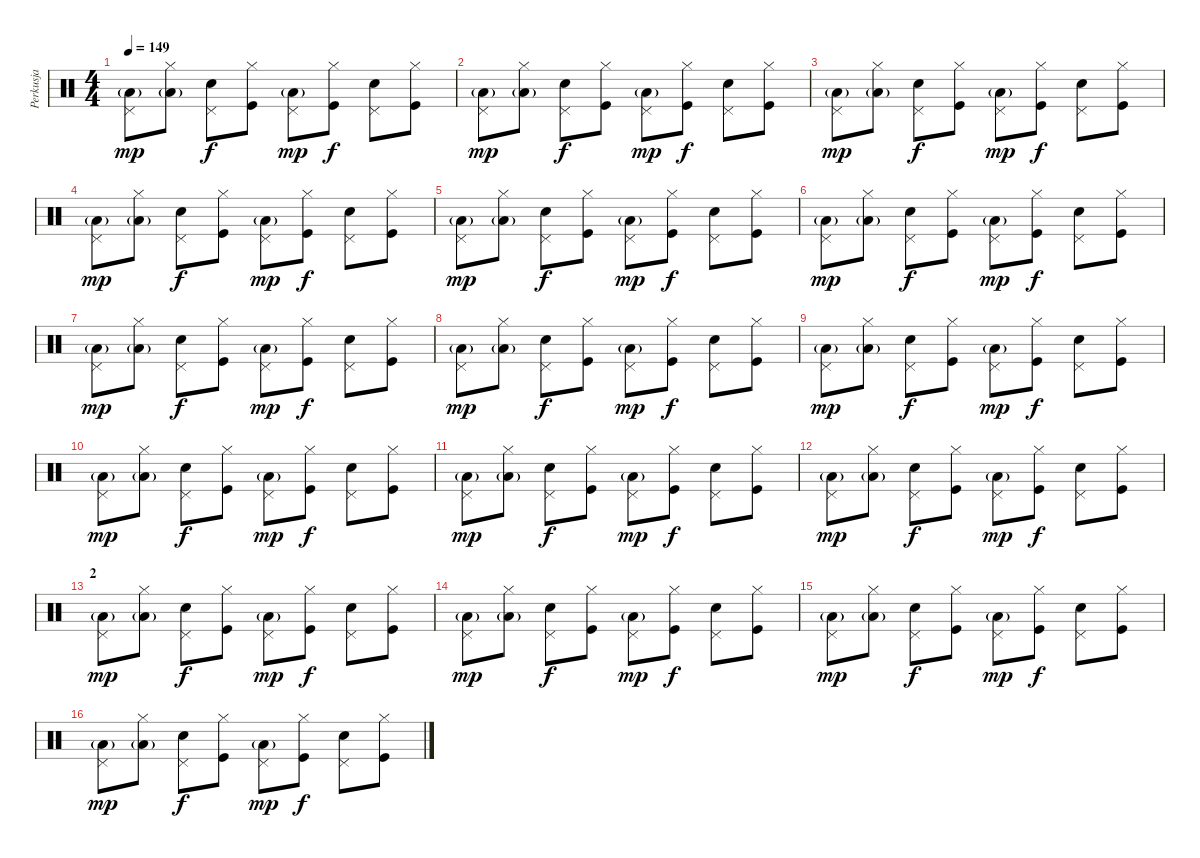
\track ("Perkusja" "Perkusja") {instrument percussion}
\staff {score}
\articulation defaults
\ts (4 4)
\tempo 149
\clef neutral
\ks c
("Low Tom (hit)"{g} "Pedal Hi-Hat (hit)").8{dy mp} ("Low Tom (hit)"{g} "Hi-Hat (closed)").8 ("Electric Snare (hit)" "Pedal Hi-Hat (hit)").8{dy f} ("Kick (hit)" "Hi-Hat (closed)").8 ("Low Tom (hit)"{g} "Pedal Hi-Hat (hit)").8{dy mp} ("Kick (hit)" "Hi-Hat (closed)").8{dy f} ("Electric Snare (hit)" "Pedal Hi-Hat (hit)").8 ("Kick (hit)" "Hi-Hat (closed)").8 |
("Low Tom (hit)"{g} "Pedal Hi-Hat (hit)").8{dy mp} ("Low Tom (hit)"{g} "Hi-Hat (closed)").8 ("Electric Snare (hit)" "Pedal Hi-Hat (hit)").8{dy f} ("Kick (hit)" "Hi-Hat (closed)").8 ("Low Tom (hit)"{g} "Pedal Hi-Hat (hit)").8{dy mp} ("Kick (hit)" "Hi-Hat (closed)").8{dy f} ("Electric Snare (hit)" "Pedal Hi-Hat (hit)").8 ("Kick (hit)" "Hi-Hat (closed)").8 |
("Low Tom (hit)"{g} "Pedal Hi-Hat (hit)").8{dy mp} ("Low Tom (hit)"{g} "Hi-Hat (closed)").8 ("Electric Snare (hit)" "Pedal Hi-Hat (hit)").8{dy f} ("Kick (hit)" "Hi-Hat (closed)").8 ("Low Tom (hit)"{g} "Pedal Hi-Hat (hit)").8{dy mp} ("Kick (hit)" "Hi-Hat (closed)").8{dy f} ("Electric Snare (hit)" "Pedal Hi-Hat (hit)").8 ("Kick (hit)" "Hi-Hat (closed)").8 |
("Low Tom (hit)"{g} "Pedal Hi-Hat (hit)").8{dy mp} ("Low Tom (hit)"{g} "Hi-Hat (closed)").8 ("Electric Snare (hit)" "Pedal Hi-Hat (hit)").8{dy f} ("Kick (hit)" "Hi-Hat (closed)").8 ("Low Tom (hit)"{g} "Pedal Hi-Hat (hit)").8{dy mp} ("Kick (hit)" "Hi-Hat (closed)").8{dy f} ("Electric Snare (hit)" "Pedal Hi-Hat (hit)").8 ("Kick (hit)" "Hi-Hat (closed)").8 |
("Low Tom (hit)"{g} "Pedal Hi-Hat (hit)").8{dy mp} ("Low Tom (hit)"{g} "Hi-Hat (closed)").8 ("Electric Snare (hit)" "Pedal Hi-Hat (hit)").8{dy f} ("Kick (hit)" "Hi-Hat (closed)").8 ("Low Tom (hit)"{g} "Pedal Hi-Hat (hit)").8{dy mp} ("Kick (hit)" "Hi-Hat (closed)").8{dy f} ("Electric Snare (hit)" "Pedal Hi-Hat (hit)").8 ("Kick (hit)" "Hi-Hat (closed)").8 |
("Low Tom (hit)"{g} "Pedal Hi-Hat (hit)").8{dy mp} ("Low Tom (hit)"{g} "Hi-Hat (closed)").8 ("Electric Snare (hit)" "Pedal Hi-Hat (hit)").8{dy f} ("Kick (hit)" "Hi-Hat (closed)").8 ("Low Tom (hit)"{g} "Pedal Hi-Hat (hit)").8{dy mp} ("Kick (hit)" "Hi-Hat (closed)").8{dy f} ("Electric Snare (hit)" "Pedal Hi-Hat (hit)").8 ("Kick (hit)" "Hi-Hat (closed)").8 |
("Low Tom (hit)"{g} "Pedal Hi-Hat (hit)").8{dy mp} ("Low Tom (hit)"{g} "Hi-Hat (closed)").8 ("Electric Snare (hit)" "Pedal Hi-Hat (hit)").8{dy f} ("Kick (hit)" "Hi-Hat (closed)").8 ("Low Tom (hit)"{g} "Pedal Hi-Hat (hit)").8{dy mp} ("Kick (hit)" "Hi-Hat (closed)").8{dy f} ("Electric Snare (hit)" "Pedal Hi-Hat (hit)").8 ("Kick (hit)" "Hi-Hat (closed)").8 |
("Low Tom (hit)"{g} "Pedal Hi-Hat (hit)").8{dy mp} ("Low Tom (hit)"{g} "Hi-Hat (closed)").8 ("Electric Snare (hit)" "Pedal Hi-Hat (hit)").8{dy f} ("Kick (hit)" "Hi-Hat (closed)").8 ("Low Tom (hit)"{g} "Pedal Hi-Hat (hit)").8{dy mp} ("Kick (hit)" "Hi-Hat (closed)").8{dy f} ("Electric Snare (hit)" "Pedal Hi-Hat (hit)").8 ("Kick (hit)" "Hi-Hat (closed)").8 |
("Low Tom (hit)"{g} "Pedal Hi-Hat (hit)").8{dy mp} ("Low Tom (hit)"{g} "Hi-Hat (closed)").8 ("Electric Snare (hit)" "Pedal Hi-Hat (hit)").8{dy f} ("Kick (hit)" "Hi-Hat (closed)").8 ("Low Tom (hit)"{g} "Pedal Hi-Hat (hit)").8{dy mp} ("Kick (hit)" "Hi-Hat (closed)").8{dy f} ("Electric Snare (hit)" "Pedal Hi-Hat (hit)").8 ("Kick (hit)" "Hi-Hat (closed)").8 |
("Low Tom (hit)"{g} "Pedal Hi-Hat (hit)").8{dy mp} ("Low Tom (hit)"{g} "Hi-Hat (closed)").8 ("Electric Snare (hit)" "Pedal Hi-Hat (hit)").8{dy f} ("Kick (hit)" "Hi-Hat (closed)").8 ("Low Tom (hit)"{g} "Pedal Hi-Hat (hit)").8{dy mp} ("Kick (hit)" "Hi-Hat (closed)").8{dy f} ("Electric Snare (hit)" "Pedal Hi-Hat (hit)").8 ("Kick (hit)" "Hi-Hat (closed)").8 |
("Low Tom (hit)"{g} "Pedal Hi-Hat (hit)").8{dy mp} ("Low Tom (hit)"{g} "Hi-Hat (closed)").8 ("Electric Snare (hit)" "Pedal Hi-Hat (hit)").8{dy f} ("Kick (hit)" "Hi-Hat (closed)").8 ("Low Tom (hit)"{g} "Pedal Hi-Hat (hit)").8{dy mp} ("Kick (hit)" "Hi-Hat (closed)").8{dy f} ("Electric Snare (hit)" "Pedal Hi-Hat (hit)").8 ("Kick (hit)" "Hi-Hat (closed)").8 |
("Low Tom (hit)"{g} "Pedal Hi-Hat (hit)").8{dy mp} ("Low Tom (hit)"{g} "Hi-Hat (closed)").8 ("Electric Snare (hit)" "Pedal Hi-Hat (hit)").8{dy f} ("Kick (hit)" "Hi-Hat (closed)").8 ("Low Tom (hit)"{g} "Pedal Hi-Hat (hit)").8{dy mp} ("Kick (hit)" "Hi-Hat (closed)").8{dy f} ("Electric Snare (hit)" "Pedal Hi-Hat (hit)").8 ("Kick (hit)" "Hi-Hat (closed)").8 |
\section ("" "2")
("Low Tom (hit)"{g} "Pedal Hi-Hat (hit)").8{dy mp} ("Low Tom (hit)"{g} "Hi-Hat (closed)").8 ("Electric Snare (hit)" "Pedal Hi-Hat (hit)").8{dy f} ("Kick (hit)" "Hi-Hat (closed)").8 ("Low Tom (hit)"{g} "Pedal Hi-Hat (hit)").8{dy mp} ("Kick (hit)" "Hi-Hat (closed)").8{dy f} ("Electric Snare (hit)" "Pedal Hi-Hat (hit)").8 ("Kick (hit)" "Hi-Hat (closed)").8 |
("Low Tom (hit)"{g} "Pedal Hi-Hat (hit)").8{dy mp} ("Low Tom (hit)"{g} "Hi-Hat (closed)").8 ("Electric Snare (hit)" "Pedal Hi-Hat (hit)").8{dy f} ("Kick (hit)" "Hi-Hat (closed)").8 ("Low Tom (hit)"{g} "Pedal Hi-Hat (hit)").8{dy mp} ("Kick (hit)" "Hi-Hat (closed)").8{dy f} ("Electric Snare (hit)" "Pedal Hi-Hat (hit)").8 ("Kick (hit)" "Hi-Hat (closed)").8 |
("Low Tom (hit)"{g} "Pedal Hi-Hat (hit)").8{dy mp} ("Low Tom (hit)"{g} "Hi-Hat (closed)").8 ("Electric Snare (hit)" "Pedal Hi-Hat (hit)").8{dy f} ("Kick (hit)" "Hi-Hat (closed)").8 ("Low Tom (hit)"{g} "Pedal Hi-Hat (hit)").8{dy mp} ("Kick (hit)" "Hi-Hat (closed)").8{dy f} ("Electric Snare (hit)" "Pedal Hi-Hat (hit)").8 ("Kick (hit)" "Hi-Hat (closed)").8 |
("Low Tom (hit)"{g} "Pedal Hi-Hat (hit)").8{dy mp} ("Low Tom (hit)"{g} "Hi-Hat (closed)").8 ("Electric Snare (hit)" "Pedal Hi-Hat (hit)").8{dy f} ("Kick (hit)" "Hi-Hat (closed)").8 ("Low Tom (hit)"{g} "Pedal Hi-Hat (hit)").8{dy mp} ("Kick (hit)" "Hi-Hat (closed)").8{dy f} ("Electric Snare (hit)" "Pedal Hi-Hat (hit)").8 ("Kick (hit)" "Hi-Hat (closed)").8
